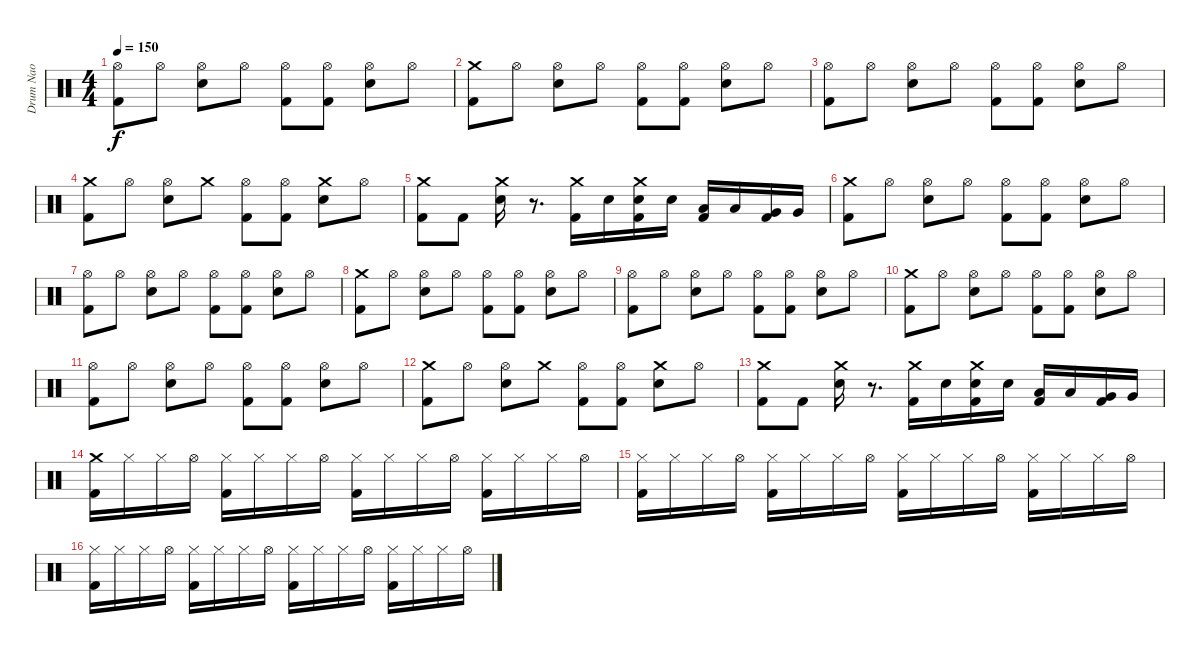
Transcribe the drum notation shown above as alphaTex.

\track ("Drum Nao" "Drum Nao") {instrument percussion}
\staff {score}
\articulation defaults
\ts (4 4)
\tempo 150
\clef neutral
\ks c
("Hi-Hat (open)" "Kick (hit) 2").8{dy f} "Hi-Hat (open)".8 ("Hi-Hat (open)" "Electric Snare (hit)").8 "Hi-Hat (open)".8 ("Hi-Hat (open)" "Kick (hit) 2").8 ("Hi-Hat (open)" "Kick (hit) 2").8 ("Hi-Hat (open)" "Electric Snare (hit)").8 "Hi-Hat (open)".8 |
("Crash medium (hit)" "Kick (hit) 2").8 "Hi-Hat (open)".8 ("Hi-Hat (open)" "Electric Snare (hit)").8 "Hi-Hat (open)".8 ("Hi-Hat (open)" "Kick (hit) 2").8 ("Hi-Hat (open)" "Kick (hit) 2").8 ("Hi-Hat (open)" "Electric Snare (hit)").8 "Hi-Hat (open)".8 |
("Hi-Hat (open)" "Kick (hit) 2").8 "Hi-Hat (open)".8 ("Hi-Hat (open)" "Electric Snare (hit)").8 "Hi-Hat (open)".8 ("Hi-Hat (open)" "Kick (hit) 2").8 ("Hi-Hat (open)" "Kick (hit) 2").8 ("Hi-Hat (open)" "Electric Snare (hit)").8 "Hi-Hat (open)".8 |
("Crash medium (hit)" "Kick (hit) 2").8 "Hi-Hat (open)".8 ("Hi-Hat (open)" "Electric Snare (hit)").8 "Crash medium (hit)".8 ("Hi-Hat (open)" "Kick (hit) 2").8 ("Hi-Hat (open)" "Kick (hit) 2").8 ("Crash medium (hit)" "Electric Snare (hit)").8 "Hi-Hat (open)".8 |
("Crash medium (hit)" "Kick (hit) 2").8 "Kick (hit) 2".8 ("Crash medium (hit)" "Electric Snare (hit)").16 r.8{d} ("Crash medium (hit)" "Kick (hit) 2").16 "Electric Snare (hit)".16 ("Crash medium (hit)" "Electric Snare (hit)" "Kick (hit) 2").16 "Electric Snare (hit)".16 ("Low Tom (hit)" "Kick (hit) 2").16 "Low Tom (hit)".16 ("Very Low Tom (hit)" "Kick (hit) 2").16 "Very Low Tom (hit)".16 |
("Crash medium (hit)" "Kick (hit) 2").8 "Hi-Hat (open)".8 ("Hi-Hat (open)" "Electric Snare (hit)").8 "Hi-Hat (open)".8 ("Hi-Hat (open)" "Kick (hit) 2").8 ("Hi-Hat (open)" "Kick (hit) 2").8 ("Hi-Hat (open)" "Electric Snare (hit)").8 "Hi-Hat (open)".8 |
("Hi-Hat (open)" "Kick (hit) 2").8 "Hi-Hat (open)".8 ("Hi-Hat (open)" "Electric Snare (hit)").8 "Hi-Hat (open)".8 ("Hi-Hat (open)" "Kick (hit) 2").8 ("Hi-Hat (open)" "Kick (hit) 2").8 ("Hi-Hat (open)" "Electric Snare (hit)").8 "Hi-Hat (open)".8 |
("Crash medium (hit)" "Kick (hit) 2").8 "Hi-Hat (open)".8 ("Hi-Hat (open)" "Electric Snare (hit)").8 "Hi-Hat (open)".8 ("Hi-Hat (open)" "Kick (hit) 2").8 ("Hi-Hat (open)" "Kick (hit) 2").8 ("Hi-Hat (open)" "Electric Snare (hit)").8 "Hi-Hat (open)".8 |
("Hi-Hat (open)" "Kick (hit) 2").8 "Hi-Hat (open)".8 ("Hi-Hat (open)" "Electric Snare (hit)").8 "Hi-Hat (open)".8 ("Hi-Hat (open)" "Kick (hit) 2").8 ("Hi-Hat (open)" "Kick (hit) 2").8 ("Hi-Hat (open)" "Electric Snare (hit)").8 "Hi-Hat (open)".8 |
("Crash medium (hit)" "Kick (hit) 2").8 "Hi-Hat (open)".8 ("Hi-Hat (open)" "Electric Snare (hit)").8 "Hi-Hat (open)".8 ("Hi-Hat (open)" "Kick (hit) 2").8 ("Hi-Hat (open)" "Kick (hit) 2").8 ("Hi-Hat (open)" "Electric Snare (hit)").8 "Hi-Hat (open)".8 |
("Hi-Hat (open)" "Kick (hit) 2").8 "Hi-Hat (open)".8 ("Hi-Hat (open)" "Electric Snare (hit)").8 "Hi-Hat (open)".8 ("Hi-Hat (open)" "Kick (hit) 2").8 ("Hi-Hat (open)" "Kick (hit) 2").8 ("Hi-Hat (open)" "Electric Snare (hit)").8 "Hi-Hat (open)".8 |
("Crash medium (hit)" "Kick (hit) 2").8 "Hi-Hat (open)".8 ("Hi-Hat (open)" "Electric Snare (hit)").8 "Crash medium (hit)".8 ("Hi-Hat (open)" "Kick (hit) 2").8 ("Hi-Hat (open)" "Kick (hit) 2").8 ("Crash medium (hit)" "Electric Snare (hit)").8 "Hi-Hat (open)".8 |
("Crash medium (hit)" "Kick (hit) 2").8 "Kick (hit) 2".8 ("Crash medium (hit)" "Electric Snare (hit)").16 r.8{d} ("Crash medium (hit)" "Kick (hit) 2").16 "Electric Snare (hit)".16 ("Crash medium (hit)" "Electric Snare (hit)" "Kick (hit) 2").16 "Electric Snare (hit)".16 ("Low Tom (hit)" "Kick (hit) 2").16 "Low Tom (hit)".16 ("Very Low Tom (hit)" "Kick (hit) 2").16 "Very Low Tom (hit)".16 |
("Crash medium (hit)" "Kick (hit) 2").16 "Hi-Hat (closed)".16 "Hi-Hat (closed)".16 "Hi-Hat (open)".16 ("Hi-Hat (closed)" "Kick (hit) 2").16 "Hi-Hat (closed)".16 "Hi-Hat (closed)".16 "Hi-Hat (open)".16 ("Hi-Hat (closed)" "Kick (hit) 2").16 "Hi-Hat (closed)".16 "Hi-Hat (closed)".16 "Hi-Hat (open)".16 ("Hi-Hat (closed)" "Kick (hit) 2").16 "Hi-Hat (closed)".16 "Hi-Hat (closed)".16 "Hi-Hat (open)".16 |
("Hi-Hat (closed)" "Kick (hit) 2").16 "Hi-Hat (closed)".16 "Hi-Hat (closed)".16 "Hi-Hat (open)".16 ("Hi-Hat (closed)" "Kick (hit) 2").16 "Hi-Hat (closed)".16 "Hi-Hat (closed)".16 "Hi-Hat (open)".16 ("Hi-Hat (closed)" "Kick (hit) 2").16 "Hi-Hat (closed)".16 "Hi-Hat (closed)".16 "Hi-Hat (open)".16 ("Hi-Hat (closed)" "Kick (hit) 2").16 "Hi-Hat (closed)".16 "Hi-Hat (closed)".16 "Hi-Hat (open)".16 |
("Hi-Hat (closed)" "Kick (hit) 2").16 "Hi-Hat (closed)".16 "Hi-Hat (closed)".16 "Hi-Hat (open)".16 ("Hi-Hat (closed)" "Kick (hit) 2").16 "Hi-Hat (closed)".16 "Hi-Hat (closed)".16 "Hi-Hat (open)".16 ("Hi-Hat (closed)" "Kick (hit) 2").16 "Hi-Hat (closed)".16 "Hi-Hat (closed)".16 "Hi-Hat (open)".16 ("Hi-Hat (closed)" "Kick (hit) 2").16 "Hi-Hat (closed)".16 "Hi-Hat (closed)".16 "Hi-Hat (open)".16
